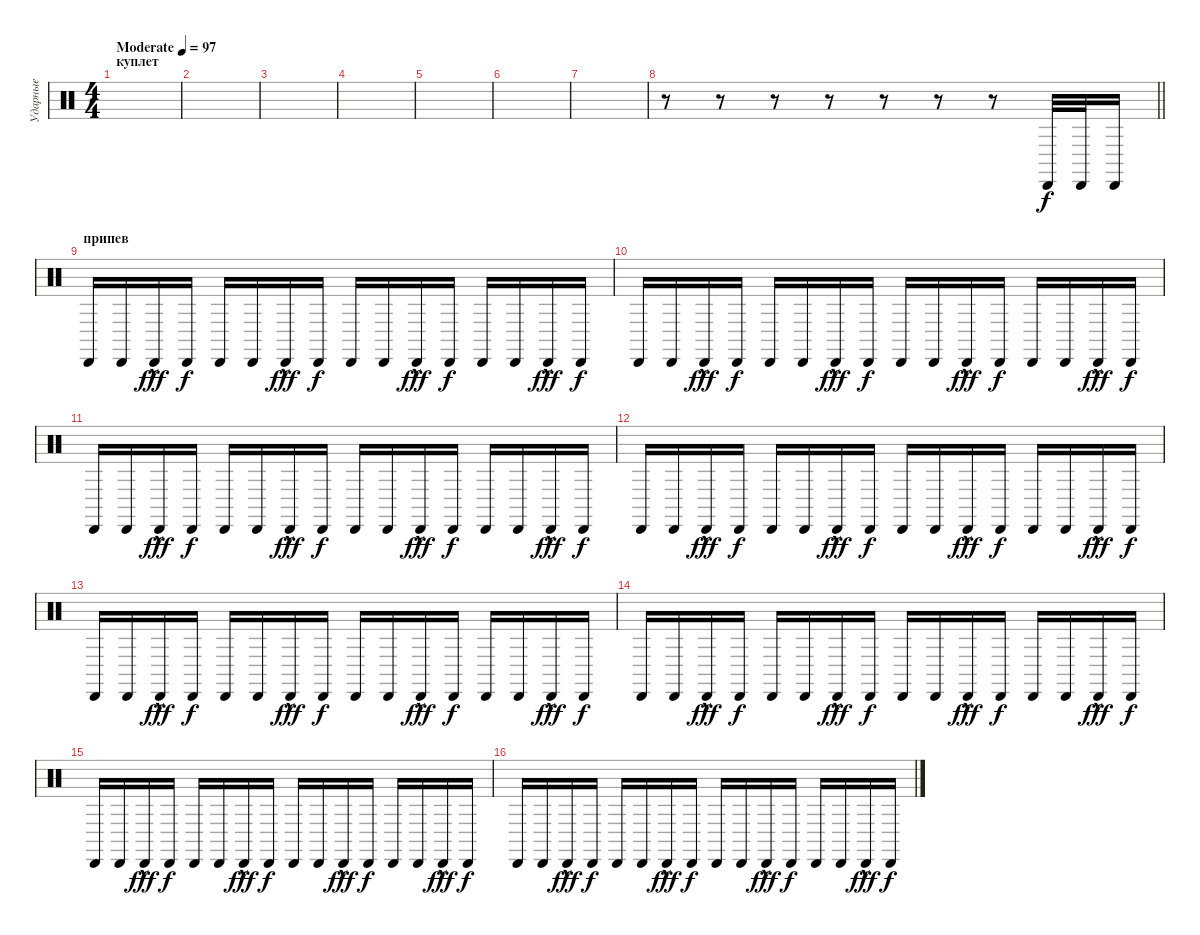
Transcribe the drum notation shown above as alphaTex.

\track ("Ударные" "Ударные") {instrument percussion}
\staff {score}
\articulation defaults
\ts (4 4)
\section ("" "куплет")
\tempo (97 "Moderate")
\clef neutral
\ks c
|
|
|
|
|
|
|
\barLineRight lightlight
r.8 r.8 r.8 r.8 r.8 r.8 r.8 "Cabasa (hit)".32 "Cabasa (hit)".32 "Cabasa (hit)".16 |
\section ("" "припев")
"Cabasa (hit)".16 "Cabasa (hit)".16 "Cabasa (hit)"{hac}.16{dy fff} "Cabasa (hit)".16{dy f} "Cabasa (hit)".16 "Cabasa (hit)".16 "Cabasa (hit)"{hac}.16{dy fff} "Cabasa (hit)".16{dy f} "Cabasa (hit)".16 "Cabasa (hit)".16 "Cabasa (hit)"{hac}.16{dy fff} "Cabasa (hit)".16{dy f} "Cabasa (hit)".16 "Cabasa (hit)".16 "Cabasa (hit)"{hac}.16{dy fff} "Cabasa (hit)".16{dy f} |
"Cabasa (hit)".16 "Cabasa (hit)".16 "Cabasa (hit)"{hac}.16{dy fff} "Cabasa (hit)".16{dy f} "Cabasa (hit)".16 "Cabasa (hit)".16 "Cabasa (hit)"{hac}.16{dy fff} "Cabasa (hit)".16{dy f} "Cabasa (hit)".16 "Cabasa (hit)".16 "Cabasa (hit)"{hac}.16{dy fff} "Cabasa (hit)".16{dy f} "Cabasa (hit)".16 "Cabasa (hit)".16 "Cabasa (hit)"{hac}.16{dy fff} "Cabasa (hit)".16{dy f} |
"Cabasa (hit)".16 "Cabasa (hit)".16 "Cabasa (hit)"{hac}.16{dy fff} "Cabasa (hit)".16{dy f} "Cabasa (hit)".16 "Cabasa (hit)".16 "Cabasa (hit)"{hac}.16{dy fff} "Cabasa (hit)".16{dy f} "Cabasa (hit)".16 "Cabasa (hit)".16 "Cabasa (hit)"{hac}.16{dy fff} "Cabasa (hit)".16{dy f} "Cabasa (hit)".16 "Cabasa (hit)".16 "Cabasa (hit)"{hac}.16{dy fff} "Cabasa (hit)".16{dy f} |
"Cabasa (hit)".16 "Cabasa (hit)".16 "Cabasa (hit)"{hac}.16{dy fff} "Cabasa (hit)".16{dy f} "Cabasa (hit)".16 "Cabasa (hit)".16 "Cabasa (hit)"{hac}.16{dy fff} "Cabasa (hit)".16{dy f} "Cabasa (hit)".16 "Cabasa (hit)".16 "Cabasa (hit)"{hac}.16{dy fff} "Cabasa (hit)".16{dy f} "Cabasa (hit)".16 "Cabasa (hit)".16 "Cabasa (hit)"{hac}.16{dy fff} "Cabasa (hit)".16{dy f} |
"Cabasa (hit)".16 "Cabasa (hit)".16 "Cabasa (hit)"{hac}.16{dy fff} "Cabasa (hit)".16{dy f} "Cabasa (hit)".16 "Cabasa (hit)".16 "Cabasa (hit)"{hac}.16{dy fff} "Cabasa (hit)".16{dy f} "Cabasa (hit)".16 "Cabasa (hit)".16 "Cabasa (hit)"{hac}.16{dy fff} "Cabasa (hit)".16{dy f} "Cabasa (hit)".16 "Cabasa (hit)".16 "Cabasa (hit)"{hac}.16{dy fff} "Cabasa (hit)".16{dy f} |
"Cabasa (hit)".16 "Cabasa (hit)".16 "Cabasa (hit)"{hac}.16{dy fff} "Cabasa (hit)".16{dy f} "Cabasa (hit)".16 "Cabasa (hit)".16 "Cabasa (hit)"{hac}.16{dy fff} "Cabasa (hit)".16{dy f} "Cabasa (hit)".16 "Cabasa (hit)".16 "Cabasa (hit)"{hac}.16{dy fff} "Cabasa (hit)".16{dy f} "Cabasa (hit)".16 "Cabasa (hit)".16 "Cabasa (hit)"{hac}.16{dy fff} "Cabasa (hit)".16{dy f} |
"Cabasa (hit)".16 "Cabasa (hit)".16 "Cabasa (hit)"{hac}.16{dy fff} "Cabasa (hit)".16{dy f} "Cabasa (hit)".16 "Cabasa (hit)".16 "Cabasa (hit)"{hac}.16{dy fff} "Cabasa (hit)".16{dy f} "Cabasa (hit)".16 "Cabasa (hit)".16 "Cabasa (hit)"{hac}.16{dy fff} "Cabasa (hit)".16{dy f} "Cabasa (hit)".16 "Cabasa (hit)".16 "Cabasa (hit)"{hac}.16{dy fff} "Cabasa (hit)".16{dy f} |
"Cabasa (hit)".16 "Cabasa (hit)".16 "Cabasa (hit)"{hac}.16{dy fff} "Cabasa (hit)".16{dy f} "Cabasa (hit)".16 "Cabasa (hit)".16 "Cabasa (hit)"{hac}.16{dy fff} "Cabasa (hit)".16{dy f} "Cabasa (hit)".16 "Cabasa (hit)".16 "Cabasa (hit)"{hac}.16{dy fff} "Cabasa (hit)".16{dy f} "Cabasa (hit)".16 "Cabasa (hit)".16 "Cabasa (hit)"{hac}.16{dy fff} "Cabasa (hit)".16{dy f}
